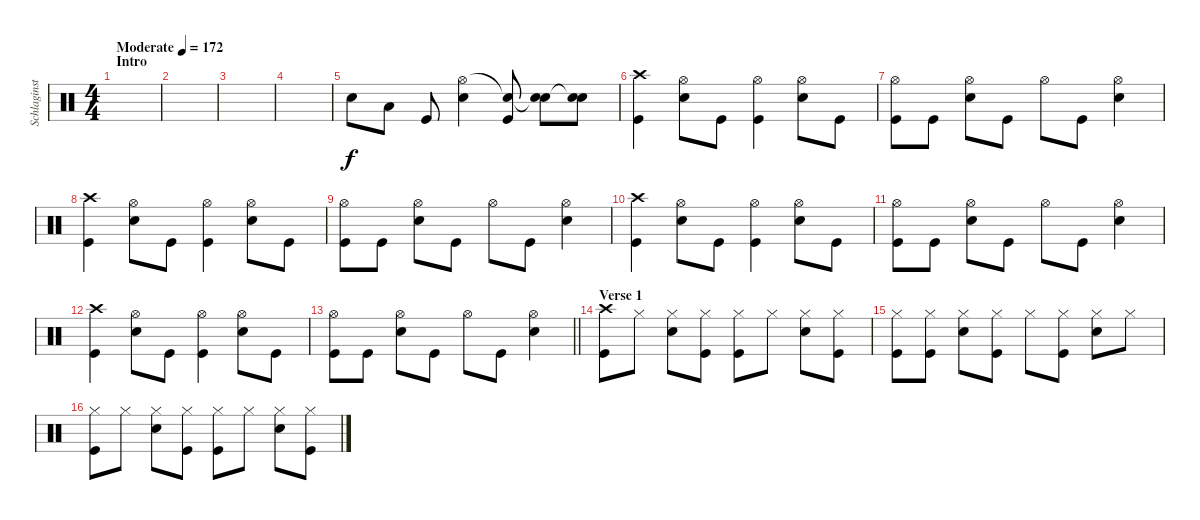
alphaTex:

\track ("Schlaginstrumente - Auswahl" "Schlaginst") {instrument percussion}
\staff {score}
\articulation defaults
\ts (4 4)
\section ("" "Intro")
\tempo (172 "Moderate")
\clef neutral
\ks c
|
|
|
|
"Snare (hit) 2".8 "Low Tom (hit)".8 "Kick (hit)".8 ("Hi-Hat (open)" "Snare (hit) 2").4 ("Snare (hit)"{t} "Kick (hit)").8 ("Snare (hit)"{t} "Snare (hit) 2").8 ("Snare (hit)"{t} "Snare (hit) 2").8 |
("Crash high (hit)" "Kick (hit)").4 ("Hi-Hat (open)" "Snare (hit) 2").8 "Kick (hit)".8 ("Hi-Hat (open)" "Kick (hit)").4 ("Hi-Hat (open)" "Snare (hit) 2").8 "Kick (hit)".8 |
("Hi-Hat (open)" "Kick (hit)").8 "Kick (hit)".8 ("Hi-Hat (open)" "Snare (hit) 2").8 "Kick (hit)".8 "Hi-Hat (open)".8 "Kick (hit)".8 ("Hi-Hat (open)" "Snare (hit) 2").4 |
("Crash high (hit)" "Kick (hit)").4 ("Hi-Hat (open)" "Snare (hit) 2").8 "Kick (hit)".8 ("Hi-Hat (open)" "Kick (hit)").4 ("Hi-Hat (open)" "Snare (hit) 2").8 "Kick (hit)".8 |
("Hi-Hat (open)" "Kick (hit)").8 "Kick (hit)".8 ("Hi-Hat (open)" "Snare (hit) 2").8 "Kick (hit)".8 "Hi-Hat (open)".8 "Kick (hit)".8 ("Hi-Hat (open)" "Snare (hit) 2").4 |
("Crash high (hit)" "Kick (hit)").4 ("Hi-Hat (open)" "Snare (hit) 2").8 "Kick (hit)".8 ("Hi-Hat (open)" "Kick (hit)").4 ("Hi-Hat (open)" "Snare (hit) 2").8 "Kick (hit)".8 |
("Hi-Hat (open)" "Kick (hit)").8 "Kick (hit)".8 ("Hi-Hat (open)" "Snare (hit) 2").8 "Kick (hit)".8 "Hi-Hat (open)".8 "Kick (hit)".8 ("Hi-Hat (open)" "Snare (hit) 2").4 |
("Crash high (hit)" "Kick (hit)").4 ("Hi-Hat (open)" "Snare (hit) 2").8 "Kick (hit)".8 ("Hi-Hat (open)" "Kick (hit)").4 ("Hi-Hat (open)" "Snare (hit) 2").8 "Kick (hit)".8 |
\barLineRight lightlight
("Hi-Hat (open)" "Kick (hit)").8 "Kick (hit)".8 ("Hi-Hat (open)" "Snare (hit) 2").8 "Kick (hit)".8 "Hi-Hat (open)".8 "Kick (hit)".8 ("Hi-Hat (open)" "Snare (hit) 2").4 |
\section ("" "Verse 1")
("Crash high (hit)" "Kick (hit)").8 "Hi-Hat (closed)".8 ("Hi-Hat (closed)" "Snare (hit) 2").8 ("Hi-Hat (closed)" "Kick (hit)").8 ("Hi-Hat (closed)" "Kick (hit)").8 "Hi-Hat (closed)".8 ("Hi-Hat (closed)" "Snare (hit) 2").8 ("Hi-Hat (closed)" "Kick (hit)").8 |
("Hi-Hat (closed)" "Kick (hit)").8 ("Hi-Hat (closed)" "Kick (hit)").8 ("Hi-Hat (closed)" "Snare (hit) 2").8 ("Hi-Hat (closed)" "Kick (hit)").8 "Hi-Hat (closed)".8 ("Hi-Hat (closed)" "Kick (hit)").8 ("Hi-Hat (closed)" "Snare (hit) 2").8 "Hi-Hat (closed)".8 |
("Hi-Hat (closed)" "Kick (hit)").8 "Hi-Hat (closed)".8 ("Hi-Hat (closed)" "Snare (hit) 2").8 ("Hi-Hat (closed)" "Kick (hit)").8 ("Hi-Hat (closed)" "Kick (hit)").8 "Hi-Hat (closed)".8 ("Hi-Hat (closed)" "Snare (hit) 2").8 ("Hi-Hat (closed)" "Kick (hit)").8
